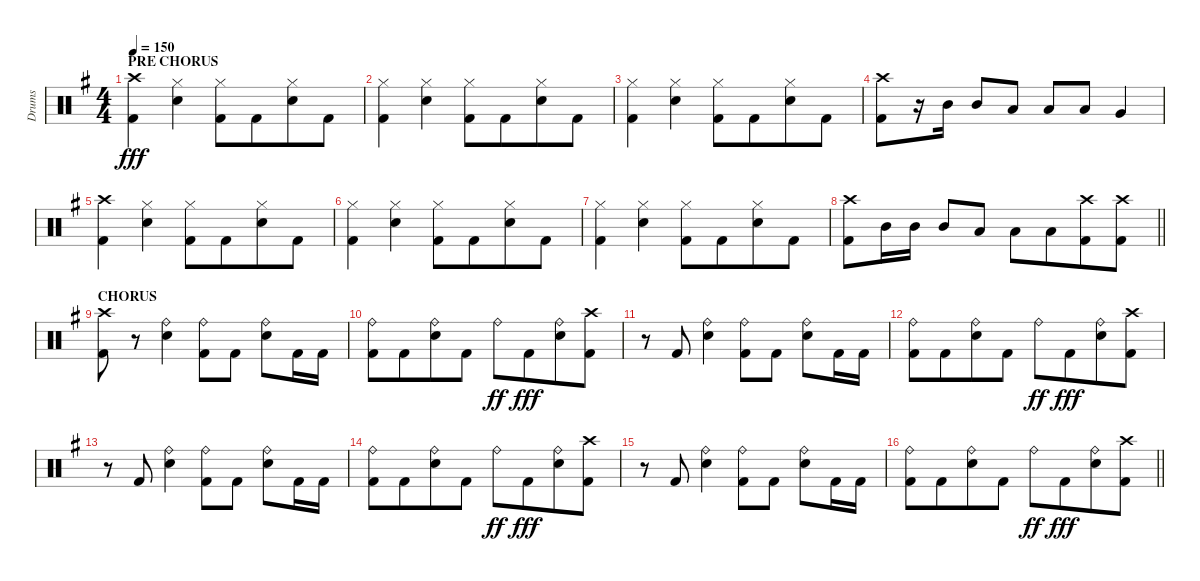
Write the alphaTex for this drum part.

\track ("Drums" "Drums") {instrument percussion}
\staff {score}
\articulation defaults
\ts (4 4)
\section ("" "PRE CHORUS")
\tempo 150
\clef neutral
\ks eminor
("Crash high (hit)" "Kick (hit) 2").4{dy fff} ("Hi-Hat (closed)" "Snare (hit) 2").4 ("Hi-Hat (closed)" "Kick (hit) 2").8 "Kick (hit) 2".8{beam merge} ("Hi-Hat (closed)" "Snare (hit) 2").8 "Kick (hit) 2".8 |
("Hi-Hat (closed)" "Kick (hit) 2").4 ("Hi-Hat (closed)" "Snare (hit) 2").4 ("Hi-Hat (closed)" "Kick (hit) 2").8 "Kick (hit) 2".8{beam merge} ("Hi-Hat (closed)" "Snare (hit) 2").8 "Kick (hit) 2".8 |
("Hi-Hat (closed)" "Kick (hit) 2").4 ("Hi-Hat (closed)" "Snare (hit) 2").4 ("Hi-Hat (closed)" "Kick (hit) 2").8 "Kick (hit) 2".8{beam merge} ("Hi-Hat (closed)" "Snare (hit) 2").8 "Kick (hit) 2".8 |
("Crash high (hit)" "Kick (hit) 2").8 r.16 "Mid Tom (hit)".16 "Mid Tom (hit)".8 "Low Tom (hit)".8 "Low Tom (hit)".8 "Low Tom (hit)".8 "Very Low Tom (hit)".4 |
("Crash high (hit)" "Kick (hit) 2").4 ("Hi-Hat (closed)" "Snare (hit) 2").4 ("Hi-Hat (closed)" "Kick (hit) 2").8 "Kick (hit) 2".8{beam merge} ("Hi-Hat (closed)" "Snare (hit) 2").8 "Kick (hit) 2".8 |
("Hi-Hat (closed)" "Kick (hit) 2").4 ("Hi-Hat (closed)" "Snare (hit) 2").4 ("Hi-Hat (closed)" "Kick (hit) 2").8 "Kick (hit) 2".8{beam merge} ("Hi-Hat (closed)" "Snare (hit) 2").8 "Kick (hit) 2".8 |
("Hi-Hat (closed)" "Kick (hit) 2").4 ("Hi-Hat (closed)" "Snare (hit) 2").4 ("Hi-Hat (closed)" "Kick (hit) 2").8 "Kick (hit) 2".8{beam merge} ("Hi-Hat (closed)" "Snare (hit) 2").8 "Kick (hit) 2".8 |
\barLineRight lightlight
("Crash high (hit)" "Kick (hit) 2").8 "Mid Tom (hit)".16 "Mid Tom (hit)".16 "Mid Tom (hit)".8 "Low Tom (hit)".8 "Low Tom (hit)".8 "Low Tom (hit)".8{beam merge} ("Crash high (hit)" "Kick (hit) 2").8 ("Crash high (hit)" "Kick (hit) 2").8 |
\section ("" "CHORUS")
("Crash high (hit)" "Kick (hit) 2").8 r.8 ("Ride (bell)" "Snare (hit) 2").4 ("Ride (bell)" "Kick (hit) 2").8 "Kick (hit) 2".8 ("Ride (bell)" "Snare (hit) 2").8 "Kick (hit) 2".16 "Kick (hit) 2".16 |
("Ride (bell)" "Kick (hit) 2").8 "Kick (hit) 2".8{beam merge} ("Ride (bell)" "Snare (hit) 2").8 "Kick (hit) 2".8 "Ride (bell)".8{dy ff} "Kick (hit) 2".8{dy fff beam merge} ("Ride (bell)" "Snare (hit) 2").8 ("Crash high (hit)" "Kick (hit) 2").8 |
r.8 "Kick (hit) 2".8 ("Ride (bell)" "Snare (hit) 2").4 ("Ride (bell)" "Kick (hit) 2").8 "Kick (hit) 2".8 ("Ride (bell)" "Snare (hit) 2").8 "Kick (hit) 2".16 "Kick (hit) 2".16 |
("Ride (bell)" "Kick (hit) 2").8 "Kick (hit) 2".8{beam merge} ("Ride (bell)" "Snare (hit) 2").8 "Kick (hit) 2".8 "Ride (bell)".8{dy ff} "Kick (hit) 2".8{dy fff beam merge} ("Ride (bell)" "Snare (hit) 2").8 ("Crash high (hit)" "Kick (hit) 2").8 |
r.8 "Kick (hit) 2".8 ("Ride (bell)" "Snare (hit) 2").4 ("Ride (bell)" "Kick (hit) 2").8 "Kick (hit) 2".8 ("Ride (bell)" "Snare (hit) 2").8 "Kick (hit) 2".16 "Kick (hit) 2".16 |
("Ride (bell)" "Kick (hit) 2").8 "Kick (hit) 2".8{beam merge} ("Ride (bell)" "Snare (hit) 2").8 "Kick (hit) 2".8 "Ride (bell)".8{dy ff} "Kick (hit) 2".8{dy fff beam merge} ("Ride (bell)" "Snare (hit) 2").8 ("Crash high (hit)" "Kick (hit) 2").8 |
r.8 "Kick (hit) 2".8 ("Ride (bell)" "Snare (hit) 2").4 ("Ride (bell)" "Kick (hit) 2").8 "Kick (hit) 2".8 ("Ride (bell)" "Snare (hit) 2").8 "Kick (hit) 2".16 "Kick (hit) 2".16 |
\barLineRight lightlight
("Ride (bell)" "Kick (hit) 2").8 "Kick (hit) 2".8{beam merge} ("Ride (bell)" "Snare (hit) 2").8 "Kick (hit) 2".8 "Ride (bell)".8{dy ff} "Kick (hit) 2".8{dy fff beam merge} ("Ride (bell)" "Snare (hit) 2").8 ("Crash high (hit)" "Kick (hit) 2").8
